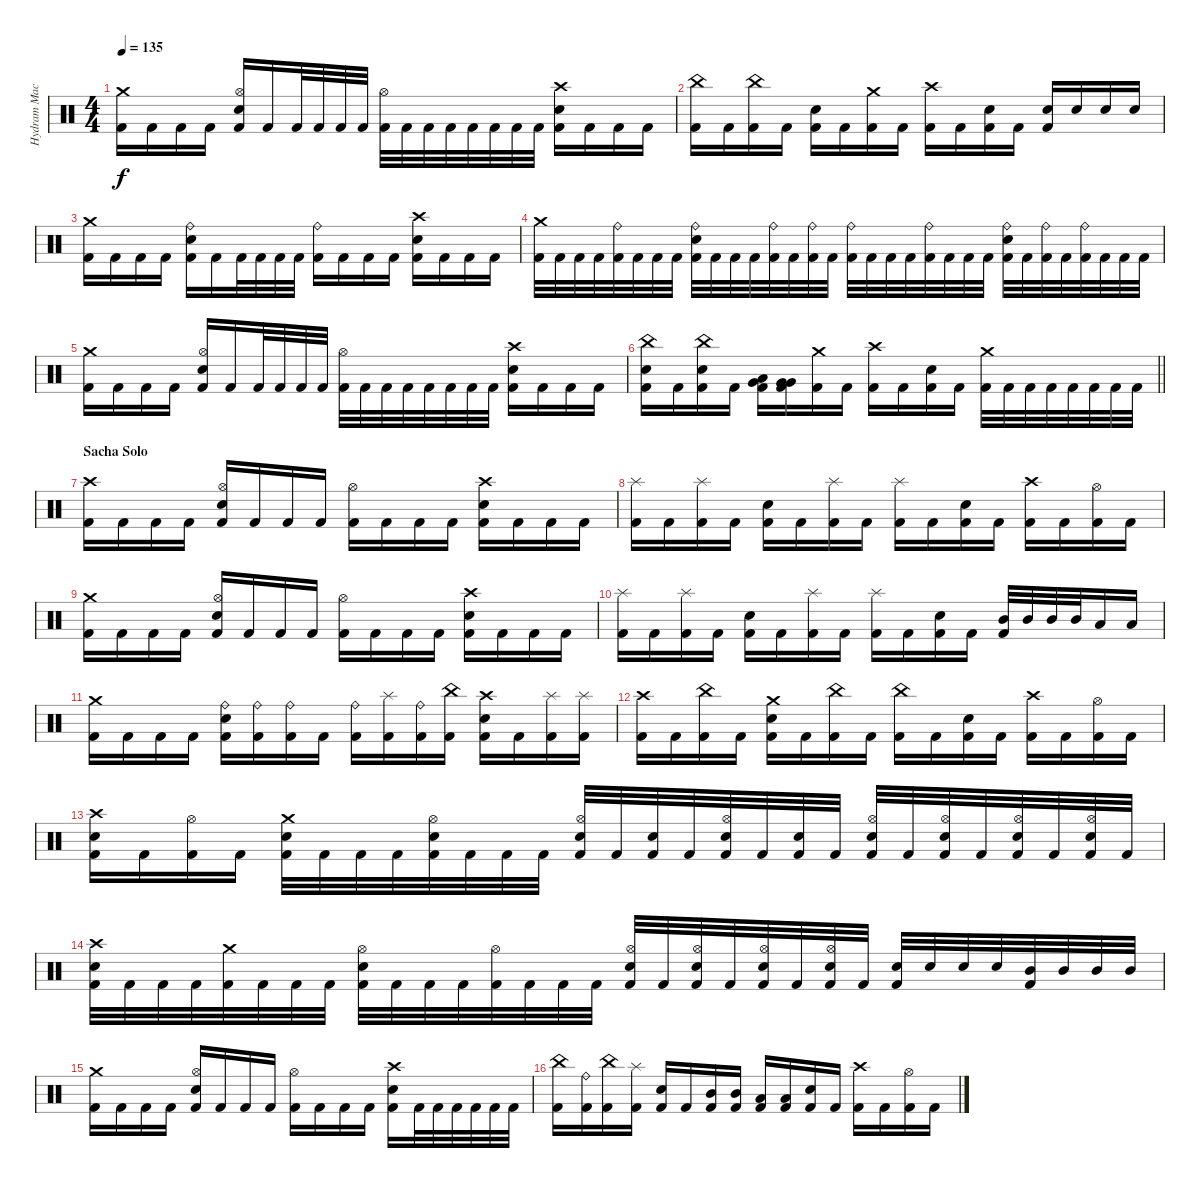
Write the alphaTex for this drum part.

\track ("Hydram Machine" "Hydram Mac") {instrument percussion}
\staff {score}
\articulation defaults
\ts (4 4)
\tempo 135
\clef neutral
\ks c
("Crash medium (hit)" "Kick (hit) 2").16{dy f} "Kick (hit) 2".16 "Kick (hit) 2".16 "Kick (hit) 2".16 ("Hi-Hat (open)" "Electric Snare (hit)" "Kick (hit) 2").16 "Kick (hit) 2".16 "Kick (hit) 2".32 "Kick (hit) 2".32 "Kick (hit) 2".32 "Kick (hit) 2".32 ("Hi-Hat (open)" "Kick (hit) 2").32 "Kick (hit) 2".32 "Kick (hit) 2".32 "Kick (hit) 2".32 "Kick (hit) 2".32 "Kick (hit) 2".32 "Kick (hit) 2".32 "Kick (hit) 2".32 ("Crash high (hit)" "Electric Snare (hit)" "Kick (hit) 2").16 "Kick (hit) 2".16 "Kick (hit) 2".16 "Kick (hit) 2".16 |
("China (hit)" "Kick (hit) 2").16 "Kick (hit) 2".16 ("China (hit)" "Kick (hit) 2").16 "Kick (hit) 2".16 ("Electric Snare (hit)" "Kick (hit) 2").16 "Kick (hit) 2".16 ("Crash medium (hit)" "Kick (hit) 2").16 "Kick (hit) 2".16 ("Crash high (hit)" "Kick (hit) 2").16 "Kick (hit) 2".16 ("Electric Snare (hit)" "Kick (hit) 2").16 "Kick (hit) 2".16 ("Electric Snare (hit)" "Kick (hit) 2").16 "Electric Snare (hit)".16 "Electric Snare (hit)".16 "Electric Snare (hit)".16 |
("Crash medium (hit)" "Kick (hit) 2").16 "Kick (hit) 2".16 "Kick (hit) 2".16 "Kick (hit) 2".16 ("Ride (bell)" "Electric Snare (hit)" "Kick (hit) 2").16 "Kick (hit) 2".16 "Kick (hit) 2".32 "Kick (hit) 2".32 "Kick (hit) 2".32 "Kick (hit) 2".32 ("Ride (bell)" "Kick (hit) 2").16 "Kick (hit) 2".16 "Kick (hit) 2".16 "Kick (hit) 2".16 ("Crash high (hit)" "Electric Snare (hit)" "Kick (hit) 2").16 "Kick (hit) 2".16 "Kick (hit) 2".16 "Kick (hit) 2".16 |
("Crash medium (hit)" "Kick (hit) 2").32 "Kick (hit) 2".32 "Kick (hit) 2".32 "Kick (hit) 2".32 ("Ride (bell)" "Kick (hit) 2").32 "Kick (hit) 2".32 "Kick (hit) 2".32 "Kick (hit) 2".32 ("Ride (bell)" "Electric Snare (hit)" "Kick (hit) 2").32 "Kick (hit) 2".32 "Kick (hit) 2".32 "Kick (hit) 2".32 ("Ride (bell)" "Kick (hit) 2").32 "Kick (hit) 2".32 ("Ride (bell)" "Kick (hit) 2").32 "Kick (hit) 2".32 ("Ride (bell)" "Kick (hit) 2").32 "Kick (hit) 2".32 "Kick (hit) 2".32 "Kick (hit) 2".32 ("Ride (bell)" "Kick (hit) 2").32 "Kick (hit) 2".32 "Kick (hit) 2".32 "Kick (hit) 2".32 ("Ride (bell)" "Electric Snare (hit)" "Kick (hit) 2").32 "Kick (hit) 2".32 ("Ride (bell)" "Kick (hit) 2").32 "Kick (hit) 2".32 ("Ride (bell)" "Kick (hit) 2").32 "Kick (hit) 2".32 "Kick (hit) 2".32 "Kick (hit) 2".32 |
("Crash medium (hit)" "Kick (hit) 2").16 "Kick (hit) 2".16 "Kick (hit) 2".16 "Kick (hit) 2".16 ("Hi-Hat (open)" "Electric Snare (hit)" "Kick (hit) 2").16 "Kick (hit) 2".16 "Kick (hit) 2".32 "Kick (hit) 2".32 "Kick (hit) 2".32 "Kick (hit) 2".32 ("Hi-Hat (open)" "Kick (hit) 2").32 "Kick (hit) 2".32 "Kick (hit) 2".32 "Kick (hit) 2".32 "Kick (hit) 2".32 "Kick (hit) 2".32 "Kick (hit) 2".32 "Kick (hit) 2".32 ("Crash high (hit)" "Electric Snare (hit)" "Kick (hit) 2").16 "Kick (hit) 2".16 "Kick (hit) 2".16 "Kick (hit) 2".16 |
\barLineRight lightlight
("China (hit)" "Electric Snare (hit)" "Kick (hit) 2").16 "Kick (hit) 2".16 ("China (hit)" "Electric Snare (hit)" "Kick (hit) 2").16 "Kick (hit) 2".16 ("Low Tom (hit)" "Very Low Tom (hit)" "Kick (hit) 2").16 ("Very Low Tom (hit)" "Very Low Tom (hit)" "Kick (hit) 2").16 ("Crash medium (hit)" "Kick (hit) 2").16 "Kick (hit) 2".16 ("Crash high (hit)" "Kick (hit) 2").16 "Kick (hit) 2".16 ("Electric Snare (hit)" "Kick (hit) 2").16 "Kick (hit) 2".16 ("Crash medium (hit)" "Kick (hit) 2").32 "Kick (hit) 2".32 "Kick (hit) 2".32 "Kick (hit) 2".32 "Kick (hit) 2".32 "Kick (hit) 2".32 "Kick (hit) 2".32 "Kick (hit) 2".32 |
\section ("" "Sacha Solo")
("Crash high (hit)" "Kick (hit) 2").16 "Kick (hit) 2".16 "Kick (hit) 2".16 "Kick (hit) 2".16 ("Hi-Hat (open)" "Electric Snare (hit)" "Kick (hit) 2").16 "Kick (hit) 2".16 "Kick (hit) 2".16 "Kick (hit) 2".16 ("Hi-Hat (open)" "Kick (hit) 2").16 "Kick (hit) 2".16 "Kick (hit) 2".16 "Kick (hit) 2".16 ("Crash high (hit)" "Electric Snare (hit)" "Kick (hit) 2").16 "Kick (hit) 2".16 "Kick (hit) 2".16 "Kick (hit) 2".16 |
("Splash (hit)" "Kick (hit) 2").16 "Kick (hit) 2".16 ("Splash (hit)" "Kick (hit) 2").16 "Kick (hit) 2".16 ("Electric Snare (hit)" "Kick (hit) 2").16 "Kick (hit) 2".16 ("Splash (hit)" "Kick (hit) 2").16 "Kick (hit) 2".16 ("Splash (hit)" "Kick (hit) 2").16 "Kick (hit) 2".16 ("Electric Snare (hit)" "Kick (hit) 2").16 "Kick (hit) 2".16 ("Crash high (hit)" "Kick (hit) 2").16 "Kick (hit) 2".16 ("Hi-Hat (open)" "Kick (hit) 2").16 "Kick (hit) 2".16 |
("Crash medium (hit)" "Kick (hit) 2").16 "Kick (hit) 2".16 "Kick (hit) 2".16 "Kick (hit) 2".16 ("Hi-Hat (open)" "Electric Snare (hit)" "Kick (hit) 2").16 "Kick (hit) 2".16 "Kick (hit) 2".16 "Kick (hit) 2".16 ("Hi-Hat (open)" "Kick (hit) 2").16 "Kick (hit) 2".16 "Kick (hit) 2".16 "Kick (hit) 2".16 ("Crash high (hit)" "Electric Snare (hit)" "Kick (hit) 2").16 "Kick (hit) 2".16 "Kick (hit) 2".16 "Kick (hit) 2".16 |
("Splash (hit)" "Kick (hit) 2").16 "Kick (hit) 2".16 ("Splash (hit)" "Kick (hit) 2").16 "Kick (hit) 2".16 ("Electric Snare (hit)" "Kick (hit) 2").16 "Kick (hit) 2".16 ("Splash (hit)" "Kick (hit) 2").16 "Kick (hit) 2".16 ("Splash (hit)" "Kick (hit) 2").16 "Kick (hit) 2".16 ("Electric Snare (hit)" "Kick (hit) 2").16 "Kick (hit) 2".16 ("Mid Tom (hit)" "Kick (hit) 2").32 "Mid Tom (hit)".32 "Mid Tom (hit)".32 "Mid Tom (hit)".32 "Low Tom (hit)".16 "Low Tom (hit)".16 |
("Crash medium (hit)" "Kick (hit) 2").16 "Kick (hit) 2".16 "Kick (hit) 2".16 "Kick (hit) 2".16 ("Ride (bell)" "Electric Snare (hit)" "Kick (hit) 2").16 ("Ride (bell)" "Kick (hit) 2").16 ("Ride (bell)" "Kick (hit) 2").16 "Kick (hit) 2".16 ("Ride (bell)" "Kick (hit) 2").16 ("Splash (hit)" "Kick (hit) 2").16 ("Ride (bell)" "Kick (hit) 2").16 ("China (hit)" "Kick (hit) 2").16 ("Crash high (hit)" "Electric Snare (hit)" "Kick (hit) 2").16 "Kick (hit) 2".16 ("Splash (hit)" "Kick (hit) 2").16 ("Splash (hit)" "Kick (hit) 2").16 |
("Crash high (hit)" "Kick (hit) 2").16 "Kick (hit) 2".16 ("China (hit)" "Kick (hit) 2").16 "Kick (hit) 2".16 ("Crash medium (hit)" "Electric Snare (hit)" "Kick (hit) 2").16 "Kick (hit) 2".16 ("China (hit)" "Kick (hit) 2").16 "Kick (hit) 2".16 ("China (hit)" "Kick (hit) 2").16 "Kick (hit) 2".16 ("Electric Snare (hit)" "Kick (hit) 2").16 "Kick (hit) 2".16 ("Crash high (hit)" "Kick (hit) 2").16 "Kick (hit) 2".16 ("Hi-Hat (open)" "Kick (hit) 2").16 "Kick (hit) 2".16 |
("Crash high (hit)" "Electric Snare (hit)" "Kick (hit) 2").16 "Kick (hit) 2".16 ("Hi-Hat (open)" "Kick (hit) 2").16 "Kick (hit) 2".16 ("Crash medium (hit)" "Electric Snare (hit)" "Kick (hit) 2").32 "Kick (hit) 2".32 "Kick (hit) 2".32 "Kick (hit) 2".32 ("Hi-Hat (open)" "Electric Snare (hit)" "Kick (hit) 2").32 "Kick (hit) 2".32 "Kick (hit) 2".32 "Kick (hit) 2".32 ("Hi-Hat (open)" "Electric Snare (hit)" "Kick (hit) 2").32 "Kick (hit) 2".32 ("Electric Snare (hit)" "Kick (hit) 2").32 "Kick (hit) 2".32 ("Hi-Hat (open)" "Electric Snare (hit)" "Kick (hit) 2").32 "Kick (hit) 2".32 ("Electric Snare (hit)" "Kick (hit) 2").32 "Kick (hit) 2".32 ("Hi-Hat (open)" "Electric Snare (hit)" "Kick (hit) 2").32 "Kick (hit) 2".32 ("Hi-Hat (open)" "Electric Snare (hit)" "Kick (hit) 2").32 "Kick (hit) 2".32 ("Hi-Hat (open)" "Electric Snare (hit)" "Kick (hit) 2").32 "Kick (hit) 2".32 ("Hi-Hat (open)" "Electric Snare (hit)" "Kick (hit) 2").32 "Kick (hit) 2".32 |
("Crash high (hit)" "Electric Snare (hit)" "Kick (hit) 2").32 "Kick (hit) 2".32 "Kick (hit) 2".32 "Kick (hit) 2".32 ("Crash medium (hit)" "Kick (hit) 2").32 "Kick (hit) 2".32 "Kick (hit) 2".32 "Kick (hit) 2".32 ("Hi-Hat (open)" "Electric Snare (hit)" "Kick (hit) 2").32 "Kick (hit) 2".32 "Kick (hit) 2".32 "Kick (hit) 2".32 ("Hi-Hat (open)" "Kick (hit) 2").32 "Kick (hit) 2".32 "Kick (hit) 2".32 "Kick (hit) 2".32 ("Hi-Hat (open)" "Electric Snare (hit)" "Kick (hit) 2").32 "Kick (hit) 2".32 ("Hi-Hat (open)" "Electric Snare (hit)" "Kick (hit) 2").32 "Kick (hit) 2".32 ("Hi-Hat (open)" "Electric Snare (hit)" "Kick (hit) 2").32 "Kick (hit) 2".32 ("Hi-Hat (open)" "Electric Snare (hit)" "Kick (hit) 2").32 "Kick (hit) 2".32 ("Electric Snare (hit)" "Kick (hit) 2").32 "Electric Snare (hit)".32 "Electric Snare (hit)".32 "Electric Snare (hit)".32 ("Mid Tom (hit)" "Kick (hit) 2").32 "Mid Tom (hit)".32 "Mid Tom (hit)".32 "Mid Tom (hit)".32 |
("Crash medium (hit)" "Kick (hit) 2").16 "Kick (hit) 2".16 "Kick (hit) 2".16 "Kick (hit) 2".16 ("Hi-Hat (open)" "Electric Snare (hit)" "Kick (hit) 2").16 "Kick (hit) 2".16 "Kick (hit) 2".16 "Kick (hit) 2".16 ("Hi-Hat (open)" "Kick (hit) 2").16 "Kick (hit) 2".16 "Kick (hit) 2".16 "Kick (hit) 2".16 ("Crash high (hit)" "Electric Snare (hit)" "Kick (hit) 2").16 "Kick (hit) 2".32 "Kick (hit) 2".32 "Kick (hit) 2".32 "Kick (hit) 2".32 "Kick (hit) 2".32 "Kick (hit) 2".32 |
("China (hit)" "Kick (hit) 2").16 ("Ride (bell)" "Kick (hit) 2").16 ("China (hit)" "Kick (hit) 2").16 ("Splash (hit)" "Kick (hit) 2").16 ("Electric Snare (hit)" "Kick (hit) 2").16 "Kick (hit) 2".16 ("Mid Tom (hit)" "Kick (hit) 2").16 ("Mid Tom (hit)" "Kick (hit) 2").16 ("Low Tom (hit)" "Kick (hit) 2").16 ("Low Tom (hit)" "Kick (hit) 2").16 ("Electric Snare (hit)" "Kick (hit) 2").16 "Kick (hit) 2".16 ("Crash high (hit)" "Kick (hit) 2").16 "Kick (hit) 2".16 ("Hi-Hat (open)" "Kick (hit) 2").16 "Kick (hit) 2".16
